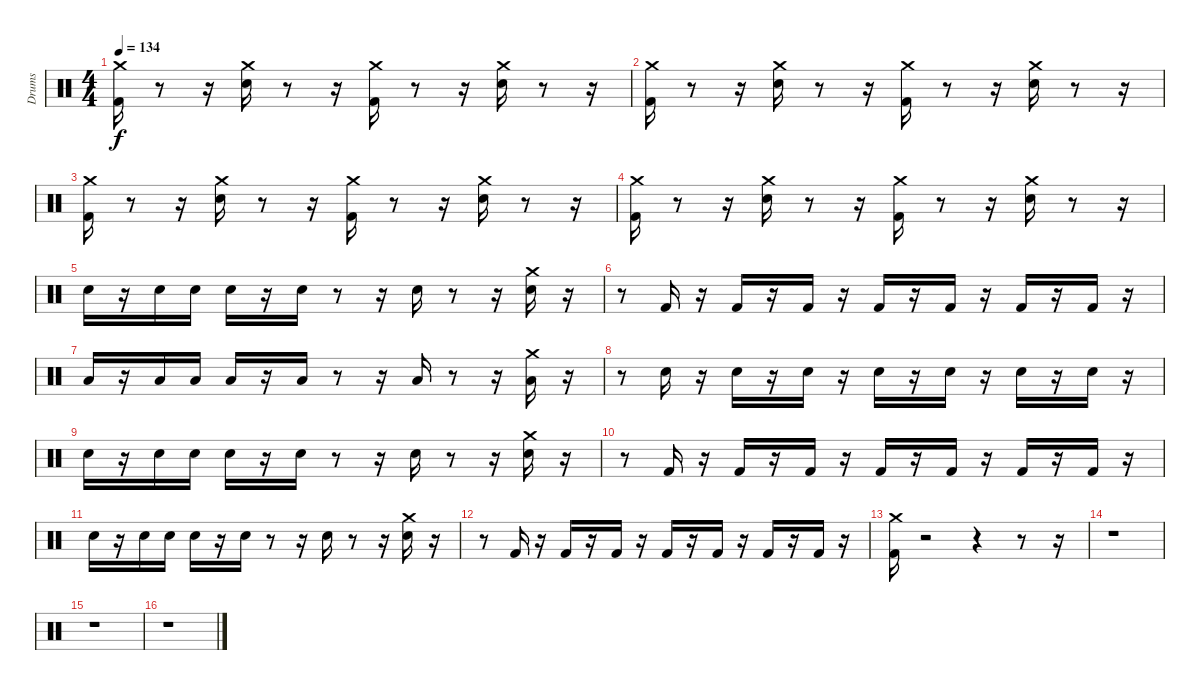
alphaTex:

\track ("Drums               " "Drums     ") {instrument percussion}
\staff {score}
\articulation defaults
\ts (4 4)
\tempo 134
\clef neutral
\ks c
("Kick (hit) 2" "Crash medium (hit)").16{dy f} r.8 r.16 ("Snare (hit) 2" "Crash medium (hit)").16 r.8 r.16 ("Kick (hit) 2" "Crash medium (hit)").16 r.8 r.16 ("Snare (hit) 2" "Crash medium (hit)").16 r.8 r.16 |
("Kick (hit) 2" "Crash medium (hit)").16 r.8 r.16 ("Snare (hit) 2" "Crash medium (hit)").16 r.8 r.16 ("Kick (hit) 2" "Crash medium (hit)").16 r.8 r.16 ("Snare (hit) 2" "Crash medium (hit)").16 r.8 r.16 |
("Kick (hit) 2" "Crash medium (hit)").16 r.8 r.16 ("Snare (hit) 2" "Crash medium (hit)").16 r.8 r.16 ("Kick (hit) 2" "Crash medium (hit)").16 r.8 r.16 ("Snare (hit) 2" "Crash medium (hit)").16 r.8 r.16 |
("Kick (hit) 2" "Crash medium (hit)").16 r.8 r.16 ("Snare (hit) 2" "Crash medium (hit)").16 r.8 r.16 ("Kick (hit) 2" "Crash medium (hit)").16 r.8 r.16 ("Snare (hit) 2" "Crash medium (hit)").16 r.8 r.16 |
"Snare (hit) 2".16 r.16 "Snare (hit) 2".16 "Snare (hit) 2".16 "Snare (hit) 2".16 r.16 "Snare (hit) 2".16 r.8 r.16 "Snare (hit) 2".16 r.8 r.16 ("Snare (hit) 2" "Crash medium (hit)").16 r.16 |
r.8 "Kick (hit) 2".16 r.16 "Kick (hit) 2".16 r.16 "Kick (hit) 2".16 r.16 "Kick (hit) 2".16 r.16 "Kick (hit) 2".16 r.16 "Kick (hit) 2".16 r.16 "Kick (hit) 2".16 r.16 |
"Low Floor Tom (hit)".16 r.16 "Low Floor Tom (hit)".16 "Low Floor Tom (hit)".16 "Low Floor Tom (hit)".16 r.16 "Low Floor Tom (hit)".16 r.8 r.16 "Low Floor Tom (hit)".16 r.8 r.16 ("Low Floor Tom (hit)" "Crash medium (hit)").16 r.16 |
r.8 "Snare (hit) 2".16 r.16 "Snare (hit) 2".16 r.16 "Snare (hit) 2".16 r.16 "Snare (hit) 2".16 r.16 "Snare (hit) 2".16 r.16 "Snare (hit) 2".16 r.16 "Snare (hit) 2".16 r.16 |
"Snare (hit) 2".16 r.16 "Snare (hit) 2".16 "Snare (hit) 2".16 "Snare (hit) 2".16 r.16 "Snare (hit) 2".16 r.8 r.16 "Snare (hit) 2".16 r.8 r.16 ("Snare (hit) 2" "Crash medium (hit)").16 r.16 |
r.8 "Kick (hit) 2".16 r.16 "Kick (hit) 2".16 r.16 "Kick (hit) 2".16 r.16 "Kick (hit) 2".16 r.16 "Kick (hit) 2".16 r.16 "Kick (hit) 2".16 r.16 "Kick (hit) 2".16 r.16 |
"Snare (hit) 2".16 r.16 "Snare (hit) 2".16 "Snare (hit) 2".16 "Snare (hit) 2".16 r.16 "Snare (hit) 2".16 r.8 r.16 "Snare (hit) 2".16 r.8 r.16 ("Snare (hit) 2" "Crash medium (hit)").16 r.16 |
r.8 "Kick (hit) 2".16 r.16 "Kick (hit) 2".16 r.16 "Kick (hit) 2".16 r.16 "Kick (hit) 2".16 r.16 "Kick (hit) 2".16 r.16 "Kick (hit) 2".16 r.16 "Kick (hit) 2".16 r.16 |
("Kick (hit) 2" "Crash medium (hit)").16 r.2 r.4 r.8 r.16 |
r.1 |
r.1 |
r.1
